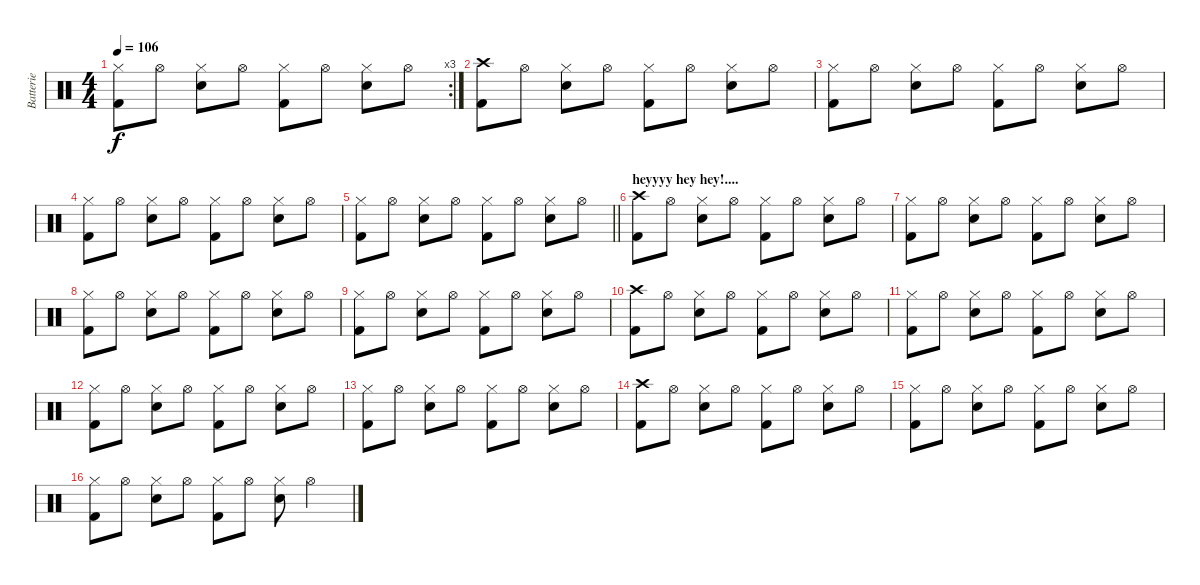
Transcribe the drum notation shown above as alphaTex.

\track ("Batterie" "Batterie") {instrument percussion}
\staff {score}
\articulation defaults
\rc 3
\ts (4 4)
\tempo 106
\clef neutral
\ks c
("Hi-Hat (closed)" "Kick (hit) 2").8{dy f} "Hi-Hat (open)".8 ("Hi-Hat (closed)" "Electric Snare (hit)").8 "Hi-Hat (open)".8 ("Hi-Hat (closed)" "Kick (hit) 2").8 "Hi-Hat (open)".8 ("Hi-Hat (closed)" "Electric Snare (hit)").8 "Hi-Hat (open)".8 |
("Crash high (hit)" "Kick (hit) 2").8 "Hi-Hat (open)".8 ("Hi-Hat (closed)" "Electric Snare (hit)").8 "Hi-Hat (open)".8 ("Hi-Hat (closed)" "Kick (hit) 2").8 "Hi-Hat (open)".8 ("Hi-Hat (closed)" "Electric Snare (hit)").8 "Hi-Hat (open)".8 |
("Hi-Hat (closed)" "Kick (hit) 2").8 "Hi-Hat (open)".8 ("Hi-Hat (closed)" "Electric Snare (hit)").8 "Hi-Hat (open)".8 ("Hi-Hat (closed)" "Kick (hit) 2").8 "Hi-Hat (open)".8 ("Hi-Hat (closed)" "Electric Snare (hit)").8 "Hi-Hat (open)".8 |
("Hi-Hat (closed)" "Kick (hit) 2").8 "Hi-Hat (open)".8 ("Hi-Hat (closed)" "Electric Snare (hit)").8 "Hi-Hat (open)".8 ("Hi-Hat (closed)" "Kick (hit) 2").8 "Hi-Hat (open)".8 ("Hi-Hat (closed)" "Electric Snare (hit)").8 "Hi-Hat (open)".8 |
\barLineRight lightlight
("Hi-Hat (closed)" "Kick (hit) 2").8 "Hi-Hat (open)".8 ("Hi-Hat (closed)" "Electric Snare (hit)").8 "Hi-Hat (open)".8 ("Hi-Hat (closed)" "Kick (hit) 2").8 "Hi-Hat (open)".8 ("Hi-Hat (closed)" "Electric Snare (hit)").8 "Hi-Hat (open)".8 |
\section ("" "heyyyy hey hey!....")
("Crash high (hit)" "Kick (hit) 2").8 "Hi-Hat (open)".8 ("Hi-Hat (closed)" "Electric Snare (hit)").8 "Hi-Hat (open)".8 ("Hi-Hat (closed)" "Kick (hit) 2").8 "Hi-Hat (open)".8 ("Hi-Hat (closed)" "Electric Snare (hit)").8 "Hi-Hat (open)".8 |
("Hi-Hat (closed)" "Kick (hit) 2").8 "Hi-Hat (open)".8 ("Hi-Hat (closed)" "Electric Snare (hit)").8 "Hi-Hat (open)".8 ("Hi-Hat (closed)" "Kick (hit) 2").8 "Hi-Hat (open)".8 ("Hi-Hat (closed)" "Electric Snare (hit)").8 "Hi-Hat (open)".8 |
("Hi-Hat (closed)" "Kick (hit) 2").8 "Hi-Hat (open)".8 ("Hi-Hat (closed)" "Electric Snare (hit)").8 "Hi-Hat (open)".8 ("Hi-Hat (closed)" "Kick (hit) 2").8 "Hi-Hat (open)".8 ("Hi-Hat (closed)" "Electric Snare (hit)").8 "Hi-Hat (open)".8 |
("Hi-Hat (closed)" "Kick (hit) 2").8 "Hi-Hat (open)".8 ("Hi-Hat (closed)" "Electric Snare (hit)").8 "Hi-Hat (open)".8 ("Hi-Hat (closed)" "Kick (hit) 2").8 "Hi-Hat (open)".8 ("Hi-Hat (closed)" "Electric Snare (hit)").8 "Hi-Hat (open)".8 |
("Crash high (hit)" "Kick (hit) 2").8 "Hi-Hat (open)".8 ("Hi-Hat (closed)" "Electric Snare (hit)").8 "Hi-Hat (open)".8 ("Hi-Hat (closed)" "Kick (hit) 2").8 "Hi-Hat (open)".8 ("Hi-Hat (closed)" "Electric Snare (hit)").8 "Hi-Hat (open)".8 |
("Hi-Hat (closed)" "Kick (hit) 2").8 "Hi-Hat (open)".8 ("Hi-Hat (closed)" "Electric Snare (hit)").8 "Hi-Hat (open)".8 ("Hi-Hat (closed)" "Kick (hit) 2").8 "Hi-Hat (open)".8 ("Hi-Hat (closed)" "Electric Snare (hit)").8 "Hi-Hat (open)".8 |
("Hi-Hat (closed)" "Kick (hit) 2").8 "Hi-Hat (open)".8 ("Hi-Hat (closed)" "Electric Snare (hit)").8 "Hi-Hat (open)".8 ("Hi-Hat (closed)" "Kick (hit) 2").8 "Hi-Hat (open)".8 ("Hi-Hat (closed)" "Electric Snare (hit)").8 "Hi-Hat (open)".8 |
("Hi-Hat (closed)" "Kick (hit) 2").8 "Hi-Hat (open)".8 ("Hi-Hat (closed)" "Electric Snare (hit)").8 "Hi-Hat (open)".8 ("Hi-Hat (closed)" "Kick (hit) 2").8 "Hi-Hat (open)".8 ("Hi-Hat (closed)" "Electric Snare (hit)").8 "Hi-Hat (open)".8 |
("Crash high (hit)" "Kick (hit) 2").8 "Hi-Hat (open)".8 ("Hi-Hat (closed)" "Electric Snare (hit)").8 "Hi-Hat (open)".8 ("Hi-Hat (closed)" "Kick (hit) 2").8 "Hi-Hat (open)".8 ("Hi-Hat (closed)" "Electric Snare (hit)").8 "Hi-Hat (open)".8 |
("Hi-Hat (closed)" "Kick (hit) 2").8 "Hi-Hat (open)".8 ("Hi-Hat (closed)" "Electric Snare (hit)").8 "Hi-Hat (open)".8 ("Hi-Hat (closed)" "Kick (hit) 2").8 "Hi-Hat (open)".8 ("Hi-Hat (closed)" "Electric Snare (hit)").8 "Hi-Hat (open)".8 |
("Hi-Hat (closed)" "Kick (hit) 2").8 "Hi-Hat (open)".8 ("Hi-Hat (closed)" "Electric Snare (hit)").8 "Hi-Hat (open)".8 ("Hi-Hat (closed)" "Kick (hit) 2").8 "Hi-Hat (open)".8 ("Hi-Hat (closed)" "Electric Snare (hit)").8 "Hi-Hat (open)".2
